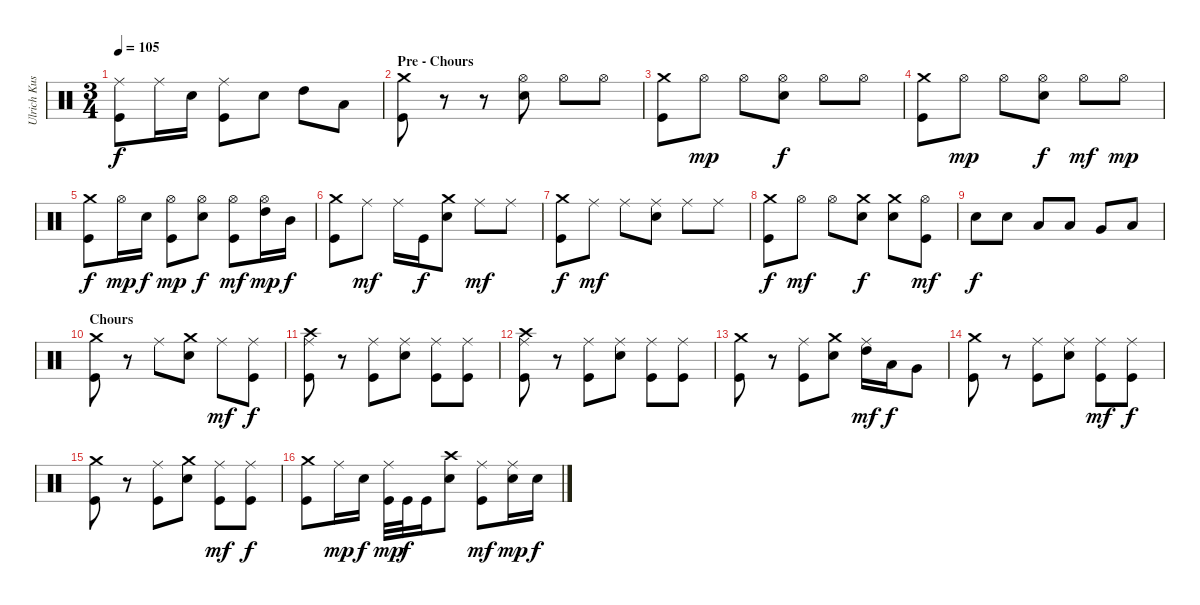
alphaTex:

\track ("Ulrich Kusch" "Ulrich Kus") {instrument percussion}
\staff {score}
\articulation defaults
\ts (3 4)
\tempo 105
\clef neutral
\ks c
("Ride (middle)" "Kick (hit)").8{dy f} "Ride (middle)".16 "Electric Snare (hit)".16 ("Ride (middle)" "Kick (hit)").8 "Electric Snare (hit)".8 "High Tom (hit)".8 "Low Tom (hit)".8 |
\section ("" "Pre - Chours")
("Crash medium (hit)" "Kick (hit)").8 r.8 r.8 ("Hi-Hat (open)" "Electric Snare (hit)").8 "Hi-Hat (open)".8 "Hi-Hat (open)".8 |
("Crash medium (hit)" "Kick (hit)").8 "Hi-Hat (open)".8{dy mp} "Hi-Hat (open)".8 ("Hi-Hat (open)" "Electric Snare (hit)").8{dy f} "Hi-Hat (open)".8 "Hi-Hat (open)".8 |
("Crash medium (hit)" "Kick (hit)").8 "Hi-Hat (open)".8{dy mp} "Hi-Hat (open)".8 ("Hi-Hat (open)" "Electric Snare (hit)").8{dy f} "Hi-Hat (open)".8{dy mf} "Hi-Hat (open)".8{dy mp} |
("Crash medium (hit)" "Kick (hit)").8{dy f} "Hi-Hat (open)".16{dy mp} "Electric Snare (hit)".16{dy f} ("Hi-Hat (open)" "Kick (hit)").8{dy mp} ("Hi-Hat (open)" "Electric Snare (hit)").8{dy f} ("Hi-Hat (open)" "Kick (hit)").8{dy mf} ("Hi-Hat (open)" "High Tom (hit)").16{dy mp} "Mid Tom (hit)".16{dy f} |
("Crash medium (hit)" "Kick (hit)").8 "Ride (middle)".8{dy mf} "Ride (middle)".16 "Kick (hit)".16{dy f} ("Crash medium (hit)" "Electric Snare (hit)").8 "Ride (middle)".8{dy mf} "Ride (middle)".8 |
("Crash medium (hit)" "Kick (hit)").8{dy f} "Ride (middle)".8{dy mf} "Ride (middle)".8 ("Ride (middle)" "Electric Snare (hit)").8 "Ride (middle)".8 "Ride (middle)".8 |
("Crash medium (hit)" "Kick (hit)").8{dy f} "Hi-Hat (open)".8{dy mf} "Hi-Hat (open)".8 ("Crash medium (hit)" "Electric Snare (hit)").8{dy f} ("Crash medium (hit)" "Electric Snare (hit)").8 ("Hi-Hat (open)" "Kick (hit)").8{dy mf} |
"Electric Snare (hit)".8{dy f} "Electric Snare (hit)".8 "Low Tom (hit)".8 "Low Tom (hit)".8 "Very Low Tom (hit)".8 "Low Floor Tom (hit)".8 |
\section ("" "Chours")
("Crash medium (hit)" "Kick (hit)").8 r.8 "Ride (middle)".8 ("Crash medium (hit)" "Electric Snare (hit)").8 "Ride (middle)".8{dy mf} ("Ride (middle)" "Kick (hit)").8{dy f} |
("Crash high (hit)" "Ride (middle)" "Kick (hit)").8 r.8 ("Ride (middle)" "Kick (hit)").8 ("Ride (middle)" "Electric Snare (hit)").8 ("Ride (middle)" "Kick (hit)").8 ("Ride (middle)" "Kick (hit)").8 |
("Crash high (hit)" "Ride (middle)" "Kick (hit)").8 r.8 ("Ride (middle)" "Kick (hit)").8 ("Ride (middle)" "Electric Snare (hit)").8 ("Ride (middle)" "Kick (hit)").8 ("Ride (middle)" "Kick (hit)").8 |
("Crash medium (hit)" "Kick (hit)").8 r.8 ("Ride (middle)" "Kick (hit)").8 ("Crash medium (hit)" "Electric Snare (hit)").8 ("Ride (middle)" "High Tom (hit)").16{dy mf} "Low Tom (hit)".16{dy f} "Very Low Tom (hit)".8 |
("Crash medium (hit)" "Kick (hit)").8 r.8 ("Ride (middle)" "Kick (hit)").8 ("Ride (middle)" "Electric Snare (hit)").8 ("Ride (middle)" "Kick (hit)").8{dy mf} ("Ride (middle)" "Kick (hit)").8{dy f} |
("Crash medium (hit)" "Kick (hit)").8 r.8 ("Ride (middle)" "Kick (hit)").8 ("Crash medium (hit)" "Electric Snare (hit)").8 ("Ride (middle)" "Kick (hit)").8{dy mf} ("Ride (middle)" "Kick (hit)").8{dy f} |
("Crash medium (hit)" "Kick (hit)").8 "Ride (middle)".16{dy mp} "Electric Snare (hit)".16{dy f} ("Ride (middle)" "Kick (hit)").32{dy mp} "Kick (hit)".32{dy f} "Kick (hit)".16 ("Crash high (hit)" "Electric Snare (hit)").8 ("Ride (middle)" "Kick (hit)").8{dy mf} ("Ride (middle)" "Electric Snare (hit)").16{dy mp} "Electric Snare (hit)".16{dy f}
